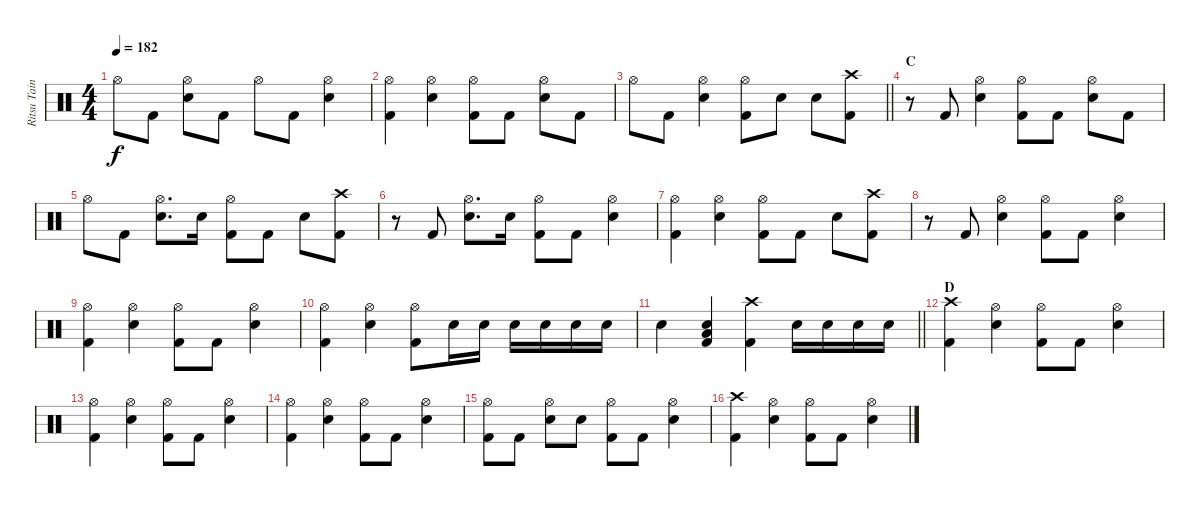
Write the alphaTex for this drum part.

\track ("Ritsu Tainaka" "Ritsu Tain") {instrument percussion}
\staff {score}
\articulation defaults
\ts (4 4)
\tempo 182
\clef neutral
\ks c "Hi-Hat (open)".8{dy f} "Kick (hit) 2".8
("Hi-Hat (open)" "Electric Snare (hit)").8 "Kick (hit) 2".8 "Hi-Hat (open)".8 "Kick (hit) 2".8 ("Hi-Hat (open)" "Electric Snare (hit)").4 |
("Hi-Hat (open)" "Kick (hit) 2").4 ("Hi-Hat (open)" "Electric Snare (hit)").4 ("Hi-Hat (open)" "Kick (hit) 2").8 "Kick (hit) 2".8 ("Hi-Hat (open)" "Electric Snare (hit)").8 "Kick (hit) 2".8 |
\barLineRight lightlight "Hi-Hat (open)".8 "Kick (hit) 2".8
("Hi-Hat (open)" "Electric Snare (hit)").4 ("Hi-Hat (open)" "Kick (hit) 2").8 "Electric Snare (hit)".8 "Electric Snare (hit)".8 ("Crash high (hit)" "Kick (hit) 2").8 |
\section ("" "C")
r.8 "Kick (hit) 2".8 ("Hi-Hat (open)" "Electric Snare (hit)").4 ("Hi-Hat (open)" "Kick (hit) 2").8 "Kick (hit) 2".8 ("Hi-Hat (open)" "Electric Snare (hit)").8 "Kick (hit) 2".8 |
"Hi-Hat (open)".8 "Kick (hit) 2".8 ("Hi-Hat (open)" "Electric Snare (hit)").8{d} "Electric Snare (hit)".16 ("Hi-Hat (open)" "Kick (hit) 2").8 "Kick (hit) 2".8 "Electric Snare (hit)".8 ("Crash high (hit)" "Kick (hit) 2").8 |
r.8 "Kick (hit) 2".8 ("Hi-Hat (open)" "Electric Snare (hit)").8{d} "Electric Snare (hit)".16 ("Hi-Hat (open)" "Kick (hit) 2").8 "Kick (hit) 2".8 ("Hi-Hat (open)" "Electric Snare (hit)").4 |
("Hi-Hat (open)" "Kick (hit) 2").4 ("Hi-Hat (open)" "Electric Snare (hit)").4 ("Hi-Hat (open)" "Kick (hit) 2").8 "Kick (hit) 2".8 "Electric Snare (hit)".8 ("Crash high (hit)" "Kick (hit) 2").8 |
r.8 "Kick (hit) 2".8 ("Hi-Hat (open)" "Electric Snare (hit)").4 ("Hi-Hat (open)" "Kick (hit) 2").8 "Kick (hit) 2".8 ("Hi-Hat (open)" "Electric Snare (hit)").4 |
("Hi-Hat (open)" "Kick (hit) 2").4 ("Hi-Hat (open)" "Electric Snare (hit)").4 ("Hi-Hat (open)" "Kick (hit) 2").8 "Kick (hit) 2".8 ("Hi-Hat (open)" "Electric Snare (hit)").4 |
("Hi-Hat (open)" "Kick (hit) 2").4 ("Hi-Hat (open)" "Electric Snare (hit)").4 ("Hi-Hat (open)" "Kick (hit) 2").8 "Electric Snare (hit)".16 "Electric Snare (hit)".16 "Electric Snare (hit)".16 "Electric Snare (hit)".16 "Electric Snare (hit)".16 "Electric Snare (hit)".16 |
\barLineRight lightlight "Electric Snare (hit)".4
("Electric Snare (hit)" "Low Floor Tom (hit)" "Kick (hit) 2").4 ("Crash high (hit)" "Kick (hit) 2").4 "Electric Snare (hit)".16 "Electric Snare (hit)".16 "Electric Snare (hit)".16 "Electric Snare (hit)".16 |
\section ("" "D")
("Crash high (hit)" "Kick (hit) 2").4 ("Hi-Hat (open)" "Electric Snare (hit)").4 ("Hi-Hat (open)" "Kick (hit) 2").8 "Kick (hit) 2".8 ("Hi-Hat (open)" "Electric Snare (hit)").4 |
("Hi-Hat (open)" "Kick (hit) 2").4 ("Hi-Hat (open)" "Electric Snare (hit)").4 ("Hi-Hat (open)" "Kick (hit) 2").8 "Kick (hit) 2".8 ("Hi-Hat (open)" "Electric Snare (hit)").4 |
("Hi-Hat (open)" "Kick (hit) 2").4 ("Hi-Hat (open)" "Electric Snare (hit)").4 ("Hi-Hat (open)" "Kick (hit) 2").8 "Kick (hit) 2".8 ("Hi-Hat (open)" "Electric Snare (hit)").4 |
("Hi-Hat (open)" "Kick (hit) 2").8 "Kick (hit) 2".8 ("Hi-Hat (open)" "Electric Snare (hit)").8 "Electric Snare (hit)".8 ("Hi-Hat (open)" "Kick (hit) 2").8 "Kick (hit) 2".8 ("Hi-Hat (open)" "Electric Snare (hit)").4 |
("Crash high (hit)" "Kick (hit) 2").4 ("Hi-Hat (open)" "Electric Snare (hit)").4 ("Hi-Hat (open)" "Kick (hit) 2").8 "Kick (hit) 2".8 ("Hi-Hat (open)" "Electric Snare (hit)").4
